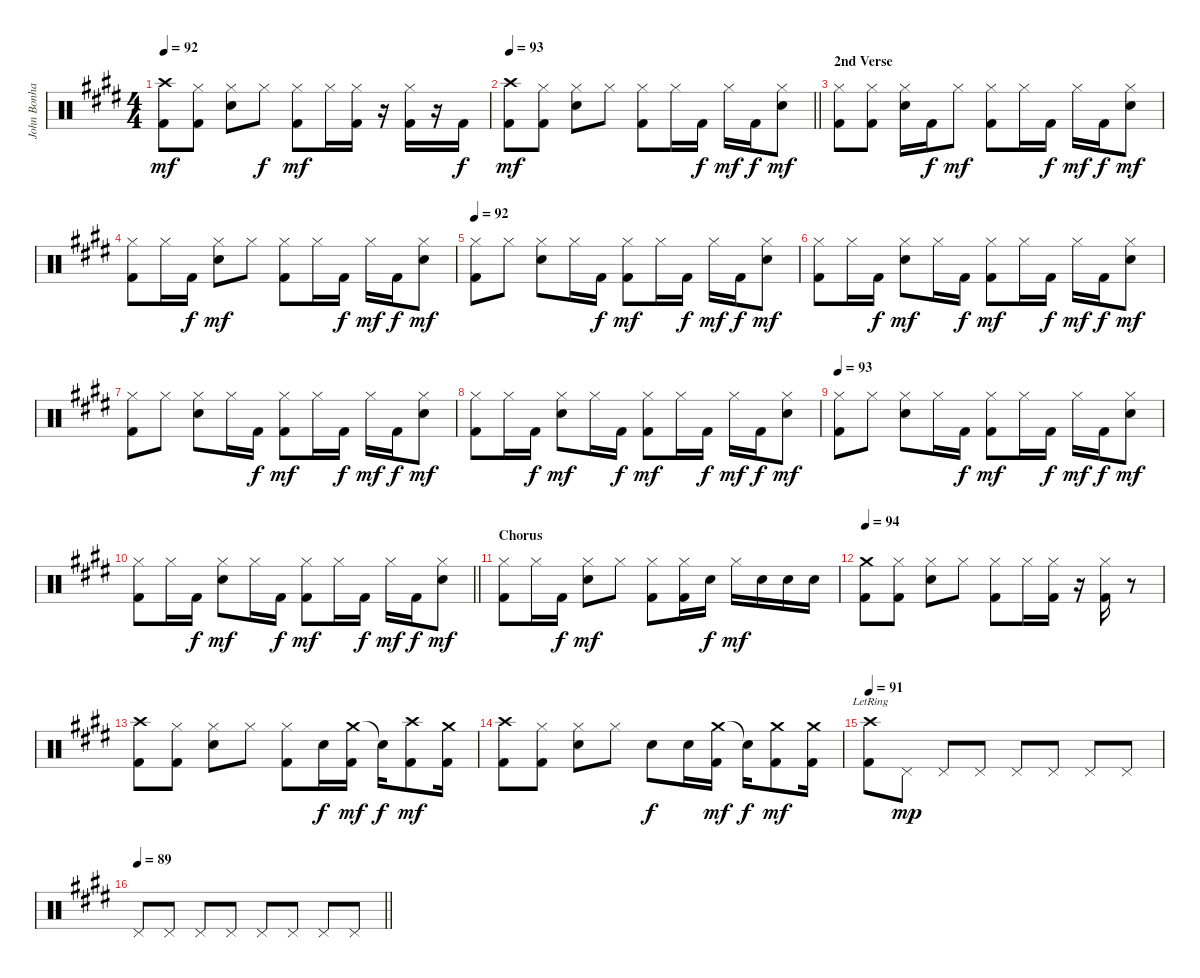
\track ("John Bonham Drums" "John Bonha") {instrument percussion}
\staff {score}
\articulation defaults
\ts (4 4)
\tempo 92
\clef neutral
\ks e
("Crash high (hit)" "Kick (hit) 2").8{dy mf} ("Hi-Hat (closed)" "Kick (hit) 2").8 ("Hi-Hat (closed)" "Snare (hit) 2").8 "Hi-Hat (closed)".8{dy f} ("Hi-Hat (closed)" "Kick (hit) 2").8{dy mf} "Hi-Hat (closed)".16 ("Hi-Hat (closed)" "Kick (hit) 2").16 r.16 ("Hi-Hat (closed)" "Kick (hit) 2").16 r.16 "Kick (hit) 2".16{dy f} |
\tempo 93
\barLineRight lightlight
("Crash high (hit)" "Kick (hit) 2").8{dy mf} ("Hi-Hat (closed)" "Kick (hit) 2").8 ("Hi-Hat (closed)" "Snare (hit) 2").8 "Hi-Hat (closed)".8 ("Hi-Hat (closed)" "Kick (hit) 2").8 "Hi-Hat (closed)".16 "Kick (hit) 2".16{dy f} "Hi-Hat (closed)".16{dy mf} "Kick (hit) 2".16{dy f} ("Hi-Hat (closed)" "Snare (hit) 2").8{dy mf} |
\section ("" "2nd Verse")
("Hi-Hat (closed)" "Kick (hit) 2").8 ("Hi-Hat (closed)" "Kick (hit) 2").8 ("Hi-Hat (closed)" "Snare (hit) 2").16 "Kick (hit) 2".16{dy f} "Hi-Hat (closed)".8{dy mf} ("Hi-Hat (closed)" "Kick (hit) 2").8 "Hi-Hat (closed)".16 "Kick (hit) 2".16{dy f} "Hi-Hat (closed)".16{dy mf} "Kick (hit) 2".16{dy f} ("Hi-Hat (closed)" "Snare (hit) 2").8{dy mf} |
("Hi-Hat (closed)" "Kick (hit) 2").8 "Hi-Hat (closed)".16 "Kick (hit) 2".16{dy f} ("Hi-Hat (closed)" "Snare (hit) 2").8{dy mf} "Hi-Hat (closed)".8 ("Hi-Hat (closed)" "Kick (hit) 2").8 "Hi-Hat (closed)".16 "Kick (hit) 2".16{dy f} "Hi-Hat (closed)".16{dy mf} "Kick (hit) 2".16{dy f} ("Hi-Hat (closed)" "Snare (hit) 2").8{dy mf} |
\tempo 92
("Hi-Hat (closed)" "Kick (hit) 2").8 "Hi-Hat (closed)".8 ("Hi-Hat (closed)" "Snare (hit) 2").8 "Hi-Hat (closed)".16 "Kick (hit) 2".16{dy f} ("Hi-Hat (closed)" "Kick (hit) 2").8{dy mf} "Hi-Hat (closed)".16 "Kick (hit) 2".16{dy f} "Hi-Hat (closed)".16{dy mf} "Kick (hit) 2".16{dy f} ("Hi-Hat (closed)" "Snare (hit) 2").8{dy mf} |
("Hi-Hat (closed)" "Kick (hit) 2").8 "Hi-Hat (closed)".16 "Kick (hit) 2".16{dy f} ("Hi-Hat (closed)" "Snare (hit) 2").8{dy mf} "Hi-Hat (closed)".16 "Kick (hit) 2".16{dy f} ("Hi-Hat (closed)" "Kick (hit) 2").8{dy mf} "Hi-Hat (closed)".16 "Kick (hit) 2".16{dy f} "Hi-Hat (closed)".16{dy mf} "Kick (hit) 2".16{dy f} ("Hi-Hat (closed)" "Snare (hit) 2").8{dy mf} |
("Hi-Hat (closed)" "Kick (hit) 2").8 "Hi-Hat (closed)".8 ("Hi-Hat (closed)" "Snare (hit) 2").8 "Hi-Hat (closed)".16 "Kick (hit) 2".16{dy f} ("Hi-Hat (closed)" "Kick (hit) 2").8{dy mf} "Hi-Hat (closed)".16 "Kick (hit) 2".16{dy f} "Hi-Hat (closed)".16{dy mf} "Kick (hit) 2".16{dy f} ("Hi-Hat (closed)" "Snare (hit) 2").8{dy mf} |
("Hi-Hat (closed)" "Kick (hit) 2").8 "Hi-Hat (closed)".16 "Kick (hit) 2".16{dy f} ("Hi-Hat (closed)" "Snare (hit) 2").8{dy mf} "Hi-Hat (closed)".16 "Kick (hit) 2".16{dy f} ("Hi-Hat (closed)" "Kick (hit) 2").8{dy mf} "Hi-Hat (closed)".16 "Kick (hit) 2".16{dy f} "Hi-Hat (closed)".16{dy mf} "Kick (hit) 2".16{dy f} ("Hi-Hat (closed)" "Snare (hit) 2").8{dy mf} |
\tempo 93
("Hi-Hat (closed)" "Kick (hit) 2").8 "Hi-Hat (closed)".8 ("Hi-Hat (closed)" "Snare (hit) 2").8 "Hi-Hat (closed)".16 "Kick (hit) 2".16{dy f} ("Hi-Hat (closed)" "Kick (hit) 2").8{dy mf} "Hi-Hat (closed)".16 "Kick (hit) 2".16{dy f} "Hi-Hat (closed)".16{dy mf} "Kick (hit) 2".16{dy f} ("Hi-Hat (closed)" "Snare (hit) 2").8{dy mf} |
\barLineRight lightlight
("Hi-Hat (closed)" "Kick (hit) 2").8 "Hi-Hat (closed)".16 "Kick (hit) 2".16{dy f} ("Hi-Hat (closed)" "Snare (hit) 2").8{dy mf} "Hi-Hat (closed)".16 "Kick (hit) 2".16{dy f} ("Hi-Hat (closed)" "Kick (hit) 2").8{dy mf} "Hi-Hat (closed)".16 "Kick (hit) 2".16{dy f} "Hi-Hat (closed)".16{dy mf} "Kick (hit) 2".16{dy f} ("Hi-Hat (closed)" "Snare (hit) 2").8{dy mf} |
\section ("" "Chorus")
("Hi-Hat (closed)" "Kick (hit) 2").8 "Hi-Hat (closed)".16 "Kick (hit) 2".16{dy f} ("Hi-Hat (closed)" "Snare (hit) 2").8{dy mf} "Hi-Hat (closed)".8 ("Hi-Hat (closed)" "Kick (hit) 2").8 ("Hi-Hat (closed)" "Kick (hit) 2").16 "Snare (hit) 2".16{dy f} "Hi-Hat (closed)".16{dy mf} "Snare (hit) 2".16 "Snare (hit) 2".16 "Snare (hit) 2".16 |
\tempo 94
("Crash medium (hit)" "Kick (hit) 2").8 ("Hi-Hat (closed)" "Kick (hit) 2").8 ("Hi-Hat (closed)" "Snare (hit) 2").8 "Hi-Hat (closed)".8 ("Hi-Hat (closed)" "Kick (hit) 2").8 "Hi-Hat (closed)".16 ("Hi-Hat (closed)" "Kick (hit) 2").16 r.16 ("Hi-Hat (closed)" "Kick (hit) 2").16 r.8 |
("Crash high (hit)" "Kick (hit) 2").8 ("Hi-Hat (closed)" "Kick (hit) 2").8 ("Hi-Hat (closed)" "Snare (hit) 2").8 "Hi-Hat (closed)".8 ("Hi-Hat (closed)" "Kick (hit) 2").8 "Snare (hit) 2".16{dy f} ("Crash medium (hit)" "Kick (hit) 2").16{dy mf} "Snare (hit)"{t}.16{dy f} ("Crash high (hit)" "Kick (hit) 2").8{dy mf} ("Crash medium (hit)" "Kick (hit) 2").16 |
("Crash high (hit)" "Kick (hit) 2").8 ("Hi-Hat (closed)" "Kick (hit) 2").8 ("Hi-Hat (closed)" "Snare (hit) 2").8 "Hi-Hat (closed)".8 "Snare (hit) 2".8{dy f} "Snare (hit) 2".16 ("Crash medium (hit)" "Kick (hit) 2").16{dy mf} "Snare (hit)"{t}.16{dy f} ("Crash medium (hit)" "Kick (hit) 2").8{dy mf} ("Crash medium (hit)" "Kick (hit) 2").16 |
\tempo 91
("Crash high (hit)"{lr} "Kick (hit) 2").8 "Pedal Hi-Hat (hit)".8{dy mp} "Pedal Hi-Hat (hit)".8 "Pedal Hi-Hat (hit)".8 "Pedal Hi-Hat (hit)".8 "Pedal Hi-Hat (hit)".8 "Pedal Hi-Hat (hit)".8 "Pedal Hi-Hat (hit)".8 |
\tempo 89
\barLineRight lightlight "Pedal Hi-Hat (hit)".8 "Pedal Hi-Hat (hit)".8 "Pedal Hi-Hat (hit)".8 "Pedal Hi-Hat (hit)".8 "Pedal Hi-Hat (hit)".8 "Pedal Hi-Hat (hit)".8 "Pedal Hi-Hat (hit)".8 "Pedal Hi-Hat (hit)".8
